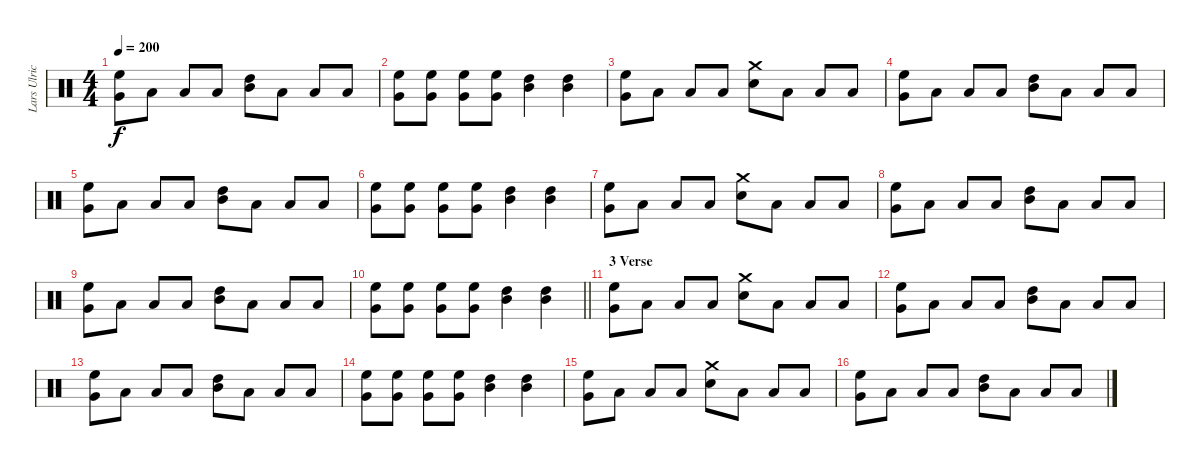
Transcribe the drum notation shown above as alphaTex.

\track ("Lars Ulrich (Drums)" "Lars Ulric") {instrument percussion}
\staff {score}
\articulation defaults
\ts (4 4)
\tempo 200
\clef neutral
\ks c
("High Floor Tom (hit)" "Very Low Tom (hit)").8{dy f} "Low Tom (hit)".8 "Low Tom (hit)".8 "Low Tom (hit)".8 ("Mid Tom (hit)" "High Tom (hit)").8 "Low Tom (hit)".8 "Low Tom (hit)".8 "Low Tom (hit)".8 |
("High Floor Tom (hit)" "Very Low Tom (hit)").8 ("High Floor Tom (hit)" "Very Low Tom (hit)").8 ("High Floor Tom (hit)" "Very Low Tom (hit)").8 ("High Floor Tom (hit)" "Very Low Tom (hit)").8 ("Mid Tom (hit)" "High Tom (hit)").4 ("Mid Tom (hit)" "High Tom (hit)").4 |
("Very Low Tom (hit)" "High Floor Tom (hit)").8 "Low Tom (hit)".8 "Low Tom (hit)".8 "Low Tom (hit)".8 ("Crash medium (hit)" "Snare (hit) 2").8 "Low Tom (hit)".8 "Low Tom (hit)".8 "Low Tom (hit)".8 |
("High Floor Tom (hit)" "Very Low Tom (hit)").8 "Low Tom (hit)".8 "Low Tom (hit)".8 "Low Tom (hit)".8 ("Mid Tom (hit)" "High Tom (hit)").8 "Low Tom (hit)".8 "Low Tom (hit)".8 "Low Tom (hit)".8 |
("High Floor Tom (hit)" "Very Low Tom (hit)").8 "Low Tom (hit)".8 "Low Tom (hit)".8 "Low Tom (hit)".8 ("Mid Tom (hit)" "High Tom (hit)").8 "Low Tom (hit)".8 "Low Tom (hit)".8 "Low Tom (hit)".8 |
("High Floor Tom (hit)" "Very Low Tom (hit)").8 ("High Floor Tom (hit)" "Very Low Tom (hit)").8 ("High Floor Tom (hit)" "Very Low Tom (hit)").8 ("High Floor Tom (hit)" "Very Low Tom (hit)").8 ("Mid Tom (hit)" "High Tom (hit)").4 ("Mid Tom (hit)" "High Tom (hit)").4 |
("Very Low Tom (hit)" "High Floor Tom (hit)").8 "Low Tom (hit)".8 "Low Tom (hit)".8 "Low Tom (hit)".8 ("Crash medium (hit)" "Snare (hit) 2").8 "Low Tom (hit)".8 "Low Tom (hit)".8 "Low Tom (hit)".8 |
("High Floor Tom (hit)" "Very Low Tom (hit)").8 "Low Tom (hit)".8 "Low Tom (hit)".8 "Low Tom (hit)".8 ("Mid Tom (hit)" "High Tom (hit)").8 "Low Tom (hit)".8 "Low Tom (hit)".8 "Low Tom (hit)".8 |
("High Floor Tom (hit)" "Very Low Tom (hit)").8 "Low Tom (hit)".8 "Low Tom (hit)".8 "Low Tom (hit)".8 ("Mid Tom (hit)" "High Tom (hit)").8 "Low Tom (hit)".8 "Low Tom (hit)".8 "Low Tom (hit)".8 |
\barLineRight lightlight
("High Floor Tom (hit)" "Very Low Tom (hit)").8 ("High Floor Tom (hit)" "Very Low Tom (hit)").8 ("High Floor Tom (hit)" "Very Low Tom (hit)").8 ("High Floor Tom (hit)" "Very Low Tom (hit)").8 ("Mid Tom (hit)" "High Tom (hit)").4 ("Mid Tom (hit)" "High Tom (hit)").4 |
\section ("" "3 Verse")
("Very Low Tom (hit)" "High Floor Tom (hit)").8 "Low Tom (hit)".8 "Low Tom (hit)".8 "Low Tom (hit)".8 ("Crash medium (hit)" "Snare (hit) 2").8 "Low Tom (hit)".8 "Low Tom (hit)".8 "Low Tom (hit)".8 |
("High Floor Tom (hit)" "Very Low Tom (hit)").8 "Low Tom (hit)".8 "Low Tom (hit)".8 "Low Tom (hit)".8 ("Mid Tom (hit)" "High Tom (hit)").8 "Low Tom (hit)".8 "Low Tom (hit)".8 "Low Tom (hit)".8 |
("High Floor Tom (hit)" "Very Low Tom (hit)").8 "Low Tom (hit)".8 "Low Tom (hit)".8 "Low Tom (hit)".8 ("Mid Tom (hit)" "High Tom (hit)").8 "Low Tom (hit)".8 "Low Tom (hit)".8 "Low Tom (hit)".8 |
("High Floor Tom (hit)" "Very Low Tom (hit)").8 ("High Floor Tom (hit)" "Very Low Tom (hit)").8 ("High Floor Tom (hit)" "Very Low Tom (hit)").8 ("High Floor Tom (hit)" "Very Low Tom (hit)").8 ("Mid Tom (hit)" "High Tom (hit)").4 ("Mid Tom (hit)" "High Tom (hit)").4 |
("Very Low Tom (hit)" "High Floor Tom (hit)").8 "Low Tom (hit)".8 "Low Tom (hit)".8 "Low Tom (hit)".8 ("Crash medium (hit)" "Snare (hit) 2").8 "Low Tom (hit)".8 "Low Tom (hit)".8 "Low Tom (hit)".8 |
("High Floor Tom (hit)" "Very Low Tom (hit)").8 "Low Tom (hit)".8 "Low Tom (hit)".8 "Low Tom (hit)".8 ("Mid Tom (hit)" "High Tom (hit)").8 "Low Tom (hit)".8 "Low Tom (hit)".8 "Low Tom (hit)".8
